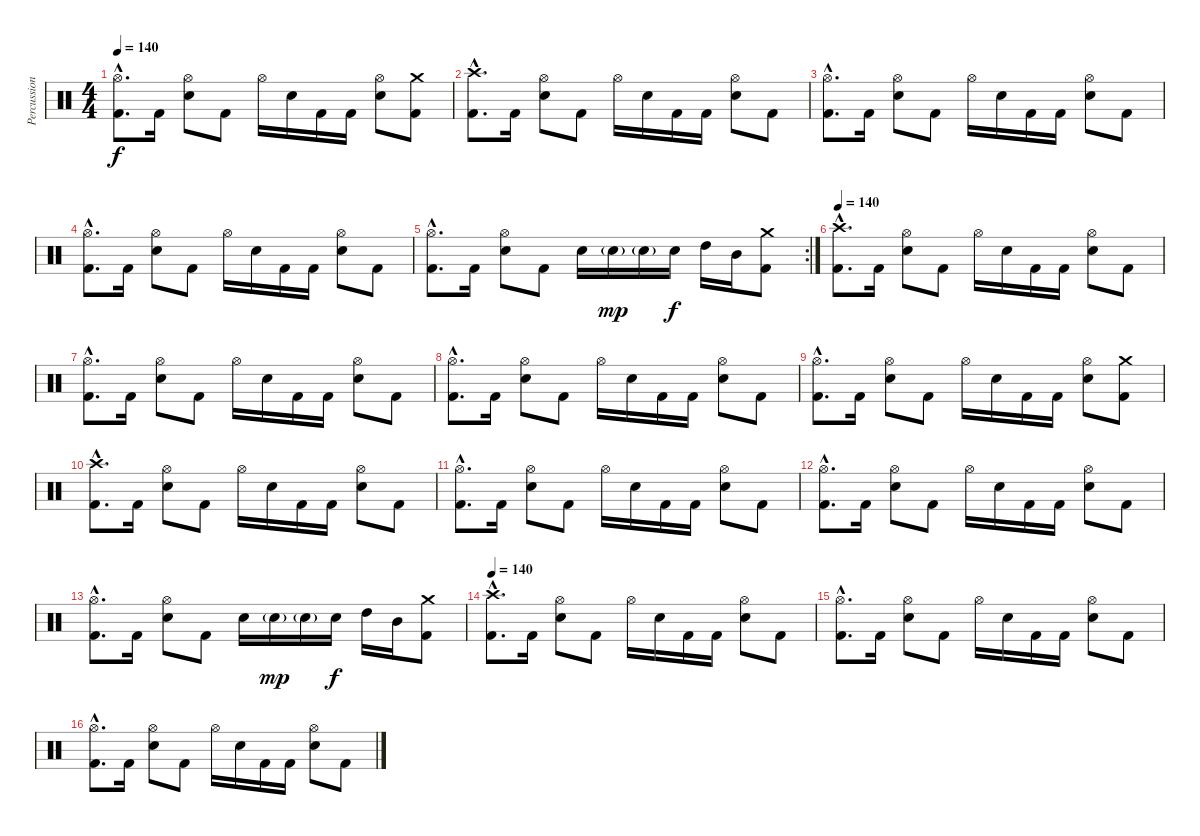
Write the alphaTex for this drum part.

\track ("Percussions" "Percussion") {instrument percussion}
\staff {score}
\articulation defaults
\ts (4 4)
\tempo 140
\clef neutral
\ks c
("Hi-Hat (open)"{hac} "Kick (hit) 2"{hac}).8{d dy f} "Kick (hit) 2".16 ("Hi-Hat (open)" "Electric Snare (hit)").8 "Kick (hit) 2".8 "Hi-Hat (open)".16 "Electric Snare (hit)".16 "Kick (hit) 2".16 "Kick (hit) 2".16 ("Hi-Hat (open)" "Electric Snare (hit)").8 ("Crash medium (hit)" "Kick (hit) 2").8 |
("Crash high (hit)"{hac} "Kick (hit) 2"{hac}).8{d} "Kick (hit) 2".16 ("Hi-Hat (open)" "Electric Snare (hit)").8 "Kick (hit) 2".8 "Hi-Hat (open)".16 "Electric Snare (hit)".16 "Kick (hit) 2".16 "Kick (hit) 2".16 ("Hi-Hat (open)" "Electric Snare (hit)").8 "Kick (hit) 2".8 |
("Hi-Hat (open)"{hac} "Kick (hit) 2"{hac}).8{d} "Kick (hit) 2".16 ("Hi-Hat (open)" "Electric Snare (hit)").8 "Kick (hit) 2".8 "Hi-Hat (open)".16 "Electric Snare (hit)".16 "Kick (hit) 2".16 "Kick (hit) 2".16 ("Hi-Hat (open)" "Electric Snare (hit)").8 "Kick (hit) 2".8 |
("Hi-Hat (open)"{hac} "Kick (hit) 2"{hac}).8{d} "Kick (hit) 2".16 ("Hi-Hat (open)" "Electric Snare (hit)").8 "Kick (hit) 2".8 "Hi-Hat (open)".16 "Electric Snare (hit)".16 "Kick (hit) 2".16 "Kick (hit) 2".16 ("Hi-Hat (open)" "Electric Snare (hit)").8 "Kick (hit) 2".8 |
\rc 2
("Hi-Hat (open)"{hac} "Kick (hit) 2"{hac}).8{d} "Kick (hit) 2".16 ("Hi-Hat (open)" "Electric Snare (hit)").8 "Kick (hit) 2".8 "Electric Snare (hit)".16 "Electric Snare (hit)"{g}.16{dy mp} "Electric Snare (hit)"{g}.16 "Electric Snare (hit)".16{dy f} "High Tom (hit)".16 "Mid Tom (hit)".16 ("Crash medium (hit)" "Kick (hit) 2").8 |
\tempo 140
("Crash high (hit)"{hac} "Kick (hit) 2"{hac}).8{d} "Kick (hit) 2".16 ("Hi-Hat (open)" "Electric Snare (hit)").8 "Kick (hit) 2".8 "Hi-Hat (open)".16 "Electric Snare (hit)".16 "Kick (hit) 2".16 "Kick (hit) 2".16 ("Hi-Hat (open)" "Electric Snare (hit)").8 "Kick (hit) 2".8 |
("Hi-Hat (open)"{hac} "Kick (hit) 2"{hac}).8{d} "Kick (hit) 2".16 ("Hi-Hat (open)" "Electric Snare (hit)").8 "Kick (hit) 2".8 "Hi-Hat (open)".16 "Electric Snare (hit)".16 "Kick (hit) 2".16 "Kick (hit) 2".16 ("Hi-Hat (open)" "Electric Snare (hit)").8 "Kick (hit) 2".8 |
("Hi-Hat (open)"{hac} "Kick (hit) 2"{hac}).8{d} "Kick (hit) 2".16 ("Hi-Hat (open)" "Electric Snare (hit)").8 "Kick (hit) 2".8 "Hi-Hat (open)".16 "Electric Snare (hit)".16 "Kick (hit) 2".16 "Kick (hit) 2".16 ("Hi-Hat (open)" "Electric Snare (hit)").8 "Kick (hit) 2".8 |
("Hi-Hat (open)"{hac} "Kick (hit) 2"{hac}).8{d} "Kick (hit) 2".16 ("Hi-Hat (open)" "Electric Snare (hit)").8 "Kick (hit) 2".8 "Hi-Hat (open)".16 "Electric Snare (hit)".16 "Kick (hit) 2".16 "Kick (hit) 2".16 ("Hi-Hat (open)" "Electric Snare (hit)").8 ("Crash medium (hit)" "Kick (hit) 2").8 |
("Crash high (hit)"{hac} "Kick (hit) 2"{hac}).8{d} "Kick (hit) 2".16 ("Hi-Hat (open)" "Electric Snare (hit)").8 "Kick (hit) 2".8 "Hi-Hat (open)".16 "Electric Snare (hit)".16 "Kick (hit) 2".16 "Kick (hit) 2".16 ("Hi-Hat (open)" "Electric Snare (hit)").8 "Kick (hit) 2".8 |
("Hi-Hat (open)"{hac} "Kick (hit) 2"{hac}).8{d} "Kick (hit) 2".16 ("Hi-Hat (open)" "Electric Snare (hit)").8 "Kick (hit) 2".8 "Hi-Hat (open)".16 "Electric Snare (hit)".16 "Kick (hit) 2".16 "Kick (hit) 2".16 ("Hi-Hat (open)" "Electric Snare (hit)").8 "Kick (hit) 2".8 |
("Hi-Hat (open)"{hac} "Kick (hit) 2"{hac}).8{d} "Kick (hit) 2".16 ("Hi-Hat (open)" "Electric Snare (hit)").8 "Kick (hit) 2".8 "Hi-Hat (open)".16 "Electric Snare (hit)".16 "Kick (hit) 2".16 "Kick (hit) 2".16 ("Hi-Hat (open)" "Electric Snare (hit)").8 "Kick (hit) 2".8 |
("Hi-Hat (open)"{hac} "Kick (hit) 2"{hac}).8{d} "Kick (hit) 2".16 ("Hi-Hat (open)" "Electric Snare (hit)").8 "Kick (hit) 2".8 "Electric Snare (hit)".16 "Electric Snare (hit)"{g}.16{dy mp} "Electric Snare (hit)"{g}.16 "Electric Snare (hit)".16{dy f} "High Tom (hit)".16 "Mid Tom (hit)".16 ("Crash medium (hit)" "Kick (hit) 2").8 |
\tempo 140
("Crash high (hit)"{hac} "Kick (hit) 2"{hac}).8{d} "Kick (hit) 2".16 ("Hi-Hat (open)" "Electric Snare (hit)").8 "Kick (hit) 2".8 "Hi-Hat (open)".16 "Electric Snare (hit)".16 "Kick (hit) 2".16 "Kick (hit) 2".16 ("Hi-Hat (open)" "Electric Snare (hit)").8 "Kick (hit) 2".8 |
("Hi-Hat (open)"{hac} "Kick (hit) 2"{hac}).8{d} "Kick (hit) 2".16 ("Hi-Hat (open)" "Electric Snare (hit)").8 "Kick (hit) 2".8 "Hi-Hat (open)".16 "Electric Snare (hit)".16 "Kick (hit) 2".16 "Kick (hit) 2".16 ("Hi-Hat (open)" "Electric Snare (hit)").8 "Kick (hit) 2".8 |
("Hi-Hat (open)"{hac} "Kick (hit) 2"{hac}).8{d} "Kick (hit) 2".16 ("Hi-Hat (open)" "Electric Snare (hit)").8 "Kick (hit) 2".8 "Hi-Hat (open)".16 "Electric Snare (hit)".16 "Kick (hit) 2".16 "Kick (hit) 2".16 ("Hi-Hat (open)" "Electric Snare (hit)").8 "Kick (hit) 2".8
